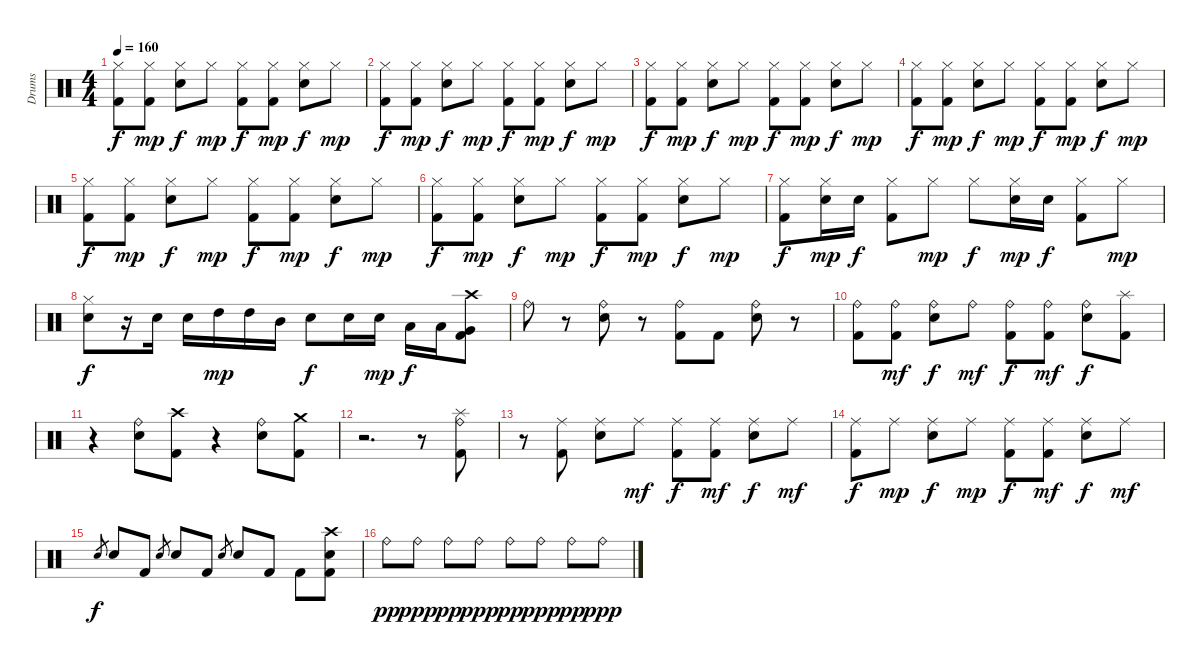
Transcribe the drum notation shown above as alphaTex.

\track ("Drums" "Drums") {instrument percussion}
\staff {score}
\articulation defaults
\ts (4 4)
\tempo 160
\clef neutral
\ks c
("Kick (hit) 2" "Hi-Hat (closed)").8{dy f} ("Kick (hit) 2" "Hi-Hat (closed)").8{dy mp} ("Snare (hit) 2" "Hi-Hat (closed)").8{dy f} "Hi-Hat (closed)".8{dy mp} ("Kick (hit) 2" "Hi-Hat (closed)").8{dy f} ("Kick (hit) 2" "Hi-Hat (closed)").8{dy mp} ("Snare (hit) 2" "Hi-Hat (closed)").8{dy f} "Hi-Hat (closed)".8{dy mp} |
("Kick (hit) 2" "Hi-Hat (closed)").8{dy f} ("Kick (hit) 2" "Hi-Hat (closed)").8{dy mp} ("Snare (hit) 2" "Hi-Hat (closed)").8{dy f} "Hi-Hat (closed)".8{dy mp} ("Kick (hit) 2" "Hi-Hat (closed)").8{dy f} ("Kick (hit) 2" "Hi-Hat (closed)").8{dy mp} ("Snare (hit) 2" "Hi-Hat (closed)").8{dy f} "Hi-Hat (closed)".8{dy mp} |
("Kick (hit) 2" "Hi-Hat (closed)").8{dy f} ("Kick (hit) 2" "Hi-Hat (closed)").8{dy mp} ("Snare (hit) 2" "Hi-Hat (closed)").8{dy f} "Hi-Hat (closed)".8{dy mp} ("Kick (hit) 2" "Hi-Hat (closed)").8{dy f} ("Kick (hit) 2" "Hi-Hat (closed)").8{dy mp} ("Snare (hit) 2" "Hi-Hat (closed)").8{dy f} "Hi-Hat (closed)".8{dy mp} |
("Kick (hit) 2" "Hi-Hat (closed)").8{dy f} ("Kick (hit) 2" "Hi-Hat (closed)").8{dy mp} ("Snare (hit) 2" "Hi-Hat (closed)").8{dy f} "Hi-Hat (closed)".8{dy mp} ("Kick (hit) 2" "Hi-Hat (closed)").8{dy f} ("Kick (hit) 2" "Hi-Hat (closed)").8{dy mp} ("Snare (hit) 2" "Hi-Hat (closed)").8{dy f} "Hi-Hat (closed)".8{dy mp} |
("Kick (hit) 2" "Hi-Hat (closed)").8{dy f} ("Kick (hit) 2" "Hi-Hat (closed)").8{dy mp} ("Snare (hit) 2" "Hi-Hat (closed)").8{dy f} "Hi-Hat (closed)".8{dy mp} ("Kick (hit) 2" "Hi-Hat (closed)").8{dy f} ("Kick (hit) 2" "Hi-Hat (closed)").8{dy mp} ("Snare (hit) 2" "Hi-Hat (closed)").8{dy f} "Hi-Hat (closed)".8{dy mp} |
("Kick (hit) 2" "Hi-Hat (closed)").8{dy f} ("Kick (hit) 2" "Hi-Hat (closed)").8{dy mp} ("Snare (hit) 2" "Hi-Hat (closed)").8{dy f} "Hi-Hat (closed)".8{dy mp} ("Kick (hit) 2" "Hi-Hat (closed)").8{dy f} ("Kick (hit) 2" "Hi-Hat (closed)").8{dy mp} ("Snare (hit) 2" "Hi-Hat (closed)").8{dy f} "Hi-Hat (closed)".8{dy mp} |
("Kick (hit) 2" "Hi-Hat (closed)").8{dy f} ("Snare (hit) 2" "Hi-Hat (closed)").16{dy mp} "Snare (hit) 2".16{dy f} ("Kick (hit) 2" "Hi-Hat (closed)").8 "Hi-Hat (closed)".8{dy mp} "Hi-Hat (closed)".8{dy f} ("Snare (hit) 2" "Hi-Hat (closed)").16{dy mp} "Snare (hit) 2".16{dy f} ("Kick (hit) 2" "Hi-Hat (closed)").8 "Hi-Hat (closed)".8{dy mp} |
("Snare (hit) 2" "Hi-Hat (closed)").8{dy f} r.16 "Snare (hit) 2".16 "Snare (hit) 2".16 "High Tom (hit)".16{dy mp} "High Tom (hit)".16 "Mid Tom (hit)".16 "Snare (hit) 2".8{dy f} "Snare (hit) 2".16 "Snare (hit) 2".16{dy mp} "Low Tom (hit)".16{dy f} "Low Tom (hit)".16 ("Kick (hit) 2" "Very Low Tom (hit)" "Crash high (hit)").8 |
"Ride (bell)".8 r.8 ("Snare (hit) 2" "Ride (bell)").8 r.8 ("Kick (hit) 2" "Ride (bell)").8 "Kick (hit) 2".8 ("Snare (hit) 2" "Ride (bell)").8 r.8 |
("Kick (hit) 2" "Ride (bell)").8 ("Kick (hit) 2" "Ride (bell)").8{dy mf} ("Snare (hit) 2" "Ride (bell)").8{dy f} "Ride (bell)".8{dy mf} ("Kick (hit) 2" "Ride (bell)").8{dy f} ("Kick (hit) 2" "Ride (bell)").8{dy mf} ("Snare (hit) 2" "Ride (bell)").8{dy f} ("Kick (hit) 2" "Splash (hit)").8 |
r.4 ("Snare (hit) 2" "Ride (bell)").8 ("Kick (hit) 2" "Crash high (hit)").8 r.4 ("Snare (hit) 2" "Ride (bell)").8 ("Kick (hit) 2" "Crash medium (hit)").8 |
r.2{d} r.8 ("Kick (hit) 2" "Splash (hit)" "Ride (bell)").8 |
r.8 ("Kick (hit) 2" "Ride (middle)").8 ("Snare (hit) 2" "Ride (middle)").8 "Ride (middle)".8{dy mf} ("Kick (hit) 2" "Ride (middle)").8{dy f} ("Kick (hit) 2" "Ride (middle)").8{dy mf} ("Snare (hit) 2" "Ride (middle)").8{dy f} "Ride (middle)".8{dy mf} |
("Kick (hit) 2" "Ride (middle)").8{dy f} "Ride (middle)".8{dy mp} ("Snare (hit) 2" "Ride (middle)").8{dy f} "Ride (middle)".8{dy mp} ("Kick (hit) 2" "Ride (middle)").8{dy f} ("Kick (hit) 2" "Ride (middle)").8{dy mf} ("Snare (hit) 2" "Ride (middle)").8{dy f} "Ride (middle)".8{dy mf} |
"Snare (hit) 2".8{gr dy f} "Snare (hit) 2".8 "Kick (hit) 2".8 "Snare (hit) 2".8{gr} "Snare (hit) 2".8 "Kick (hit) 2".8 "Snare (hit) 2".8{gr} "Snare (hit) 2".8 "Kick (hit) 2".8 "Kick (hit) 2".8 ("Kick (hit) 2" "Snare (hit) 2" "Crash high (hit)").8 |
"Ride (bell)".8{dy pp} "Ride (bell)".8{dy ppp} "Ride (bell)".8{dy pp} "Ride (bell)".8{dy ppp} "Ride (bell)".8{dy pp} "Ride (bell)".8{dy ppp} "Ride (bell)".8{dy pp} "Ride (bell)".8{dy ppp}
